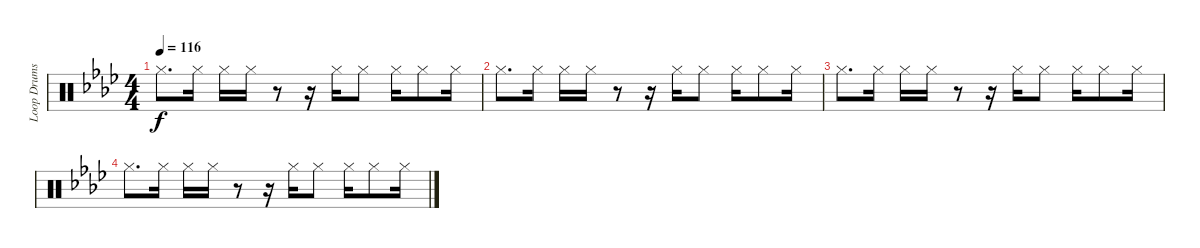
\track ("Loop Drums II" "Loop Drums") {instrument percussion}
\staff {score}
\articulation defaults
\ts (4 4)
\tempo 116
\clef neutral
\ks ab "Hi-Hat (closed)".8{d dy f} "Hi-Hat (closed)".16 "Hi-Hat (closed)".16 "Hi-Hat (closed)".16
r.8 r.16 "Hi-Hat (closed)".16 "Hi-Hat (closed)".8 "Hi-Hat (closed)".16 "Hi-Hat (closed)".8 "Hi-Hat (closed)".16 |
"Hi-Hat (closed)".8{d} "Hi-Hat (closed)".16 "Hi-Hat (closed)".16 "Hi-Hat (closed)".16 r.8 r.16 "Hi-Hat (closed)".16 "Hi-Hat (closed)".8 "Hi-Hat (closed)".16 "Hi-Hat (closed)".8 "Hi-Hat (closed)".16 |
"Hi-Hat (closed)".8{d} "Hi-Hat (closed)".16 "Hi-Hat (closed)".16 "Hi-Hat (closed)".16 r.8 r.16 "Hi-Hat (closed)".16 "Hi-Hat (closed)".8 "Hi-Hat (closed)".16 "Hi-Hat (closed)".8 "Hi-Hat (closed)".16 |
"Hi-Hat (closed)".8{d} "Hi-Hat (closed)".16 "Hi-Hat (closed)".16 "Hi-Hat (closed)".16 r.8 r.16 "Hi-Hat (closed)".16 "Hi-Hat (closed)".8 "Hi-Hat (closed)".16 "Hi-Hat (closed)".8 "Hi-Hat (closed)".16
